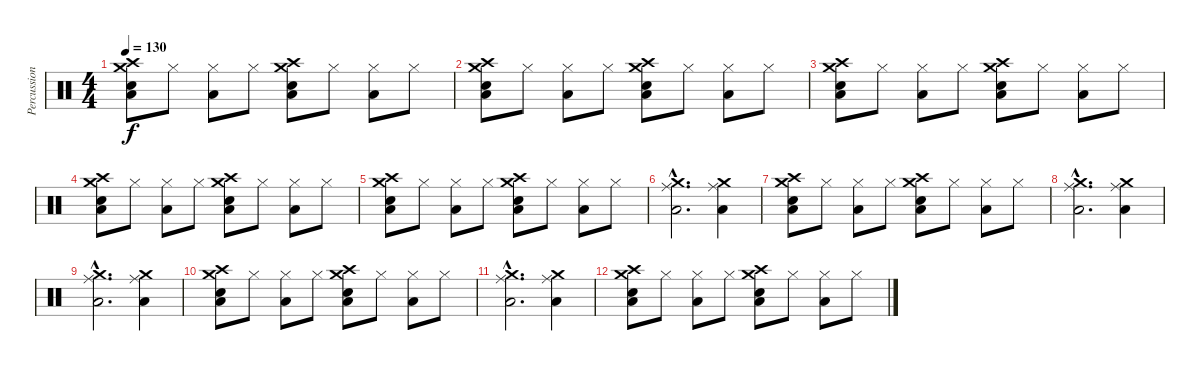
\track ("Percussions" "Percussion") {instrument percussion}
\staff {score}
\articulation defaults
\ts (4 4)
\tempo 130
\clef neutral
\ks c
("Low Floor Tom (hit)" "Snare (hit) 2" "Crash high (hit)" "Crash medium (hit)").8{dy f} "Hi-Hat (closed)".8 ("Low Floor Tom (hit)" "Hi-Hat (closed)").8 "Hi-Hat (closed)".8 ("Low Floor Tom (hit)" "Snare (hit) 2" "Crash high (hit)" "Crash medium (hit)").8 "Hi-Hat (closed)".8 ("Low Floor Tom (hit)" "Hi-Hat (closed)").8 "Hi-Hat (closed)".8 |
("Low Floor Tom (hit)" "Snare (hit) 2" "Crash high (hit)" "Crash medium (hit)").8 "Hi-Hat (closed)".8 ("Low Floor Tom (hit)" "Hi-Hat (closed)").8 "Hi-Hat (closed)".8 ("Low Floor Tom (hit)" "Snare (hit) 2" "Crash high (hit)" "Crash medium (hit)").8 "Hi-Hat (closed)".8 ("Low Floor Tom (hit)" "Hi-Hat (closed)").8 "Hi-Hat (closed)".8 |
("Low Floor Tom (hit)" "Snare (hit) 2" "Crash high (hit)" "Crash medium (hit)").8 "Hi-Hat (closed)".8 ("Low Floor Tom (hit)" "Hi-Hat (closed)").8 "Hi-Hat (closed)".8 ("Low Floor Tom (hit)" "Snare (hit) 2" "Crash high (hit)" "Crash medium (hit)").8 "Hi-Hat (closed)".8 ("Low Floor Tom (hit)" "Hi-Hat (closed)").8 "Hi-Hat (closed)".8 |
("Low Floor Tom (hit)" "Snare (hit) 2" "Crash high (hit)" "Crash medium (hit)").8 "Hi-Hat (closed)".8 ("Low Floor Tom (hit)" "Hi-Hat (closed)").8 "Hi-Hat (closed)".8 ("Low Floor Tom (hit)" "Snare (hit) 2" "Crash high (hit)" "Crash medium (hit)").8 "Hi-Hat (closed)".8 ("Low Floor Tom (hit)" "Hi-Hat (closed)").8 "Hi-Hat (closed)".8 |
("Low Floor Tom (hit)" "Snare (hit) 2" "Crash high (hit)" "Crash medium (hit)").8 "Hi-Hat (closed)".8 ("Low Floor Tom (hit)" "Hi-Hat (closed)").8 "Hi-Hat (closed)".8 ("Low Floor Tom (hit)" "Snare (hit) 2" "Crash high (hit)" "Crash medium (hit)").8 "Hi-Hat (closed)".8 ("Low Floor Tom (hit)" "Hi-Hat (closed)").8 "Hi-Hat (closed)".8 |
("Low Floor Tom (hit)"{hac} "Crash medium (hit)"{hac} "Ride (middle)"{hac}).2{d} ("Low Floor Tom (hit)" "Crash medium (hit)" "Ride (middle)").4 |
("Low Floor Tom (hit)" "Snare (hit) 2" "Crash high (hit)" "Crash medium (hit)").8 "Hi-Hat (closed)".8 ("Low Floor Tom (hit)" "Hi-Hat (closed)").8 "Hi-Hat (closed)".8 ("Low Floor Tom (hit)" "Snare (hit) 2" "Crash high (hit)" "Crash medium (hit)").8 "Hi-Hat (closed)".8 ("Low Floor Tom (hit)" "Hi-Hat (closed)").8 "Hi-Hat (closed)".8 |
("Low Floor Tom (hit)"{hac} "Crash medium (hit)"{hac} "Ride (middle)"{hac}).2{d} ("Low Floor Tom (hit)" "Crash medium (hit)" "Ride (middle)").4 |
("Low Floor Tom (hit)"{hac} "Crash medium (hit)"{hac} "Ride (middle)"{hac}).2{d} ("Low Floor Tom (hit)" "Crash medium (hit)" "Ride (middle)").4 |
("Low Floor Tom (hit)" "Snare (hit) 2" "Crash high (hit)" "Crash medium (hit)").8 "Hi-Hat (closed)".8 ("Low Floor Tom (hit)" "Hi-Hat (closed)").8 "Hi-Hat (closed)".8 ("Low Floor Tom (hit)" "Snare (hit) 2" "Crash high (hit)" "Crash medium (hit)").8 "Hi-Hat (closed)".8 ("Low Floor Tom (hit)" "Hi-Hat (closed)").8 "Hi-Hat (closed)".8 |
("Low Floor Tom (hit)"{hac} "Crash medium (hit)"{hac} "Ride (middle)"{hac}).2{d} ("Low Floor Tom (hit)" "Crash medium (hit)" "Ride (middle)").4 |
("Low Floor Tom (hit)" "Snare (hit) 2" "Crash high (hit)" "Crash medium (hit)").8 "Hi-Hat (closed)".8 ("Low Floor Tom (hit)" "Hi-Hat (closed)").8 "Hi-Hat (closed)".8 ("Low Floor Tom (hit)" "Snare (hit) 2" "Crash high (hit)" "Crash medium (hit)").8 "Hi-Hat (closed)".8 ("Low Floor Tom (hit)" "Hi-Hat (closed)").8 "Hi-Hat (closed)".8
